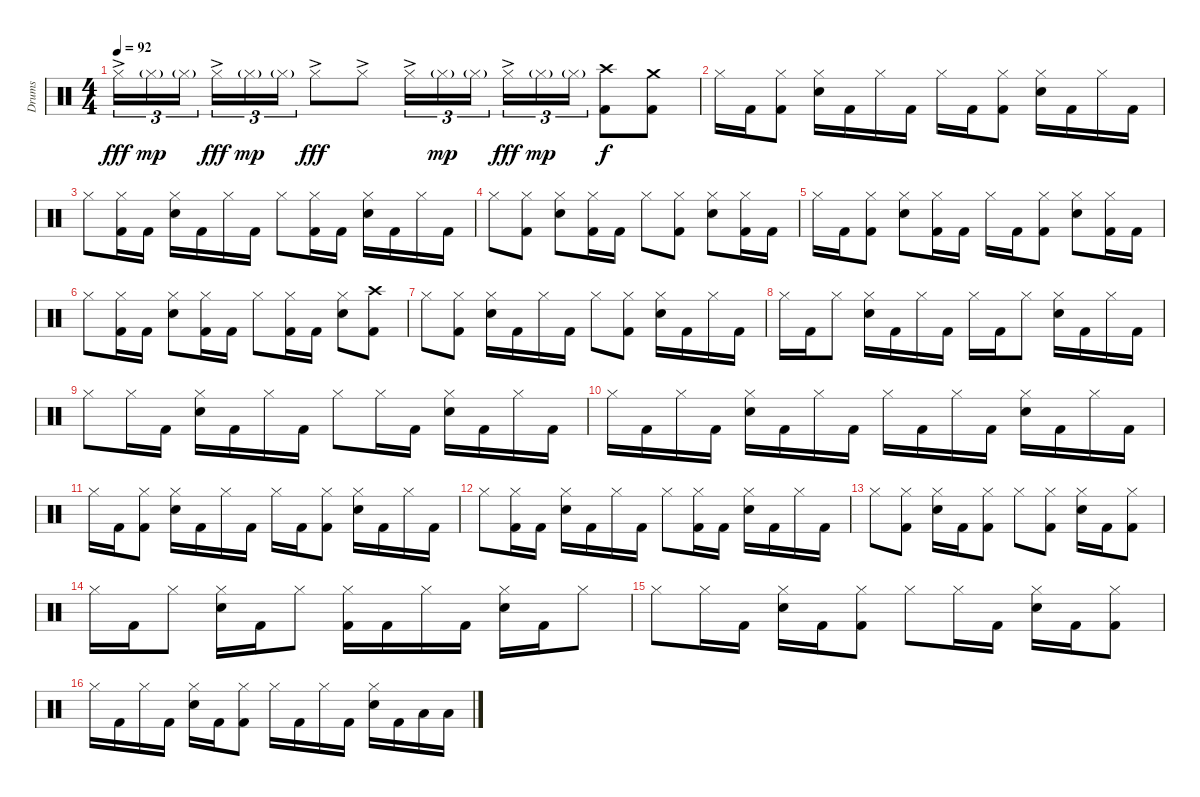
\track ("Drums" "Drums") {instrument percussion}
\staff {score}
\articulation defaults
\ts (4 4)
\tempo 92
\clef neutral
\ks c "Hi-Hat (closed)"{ac}.16{tu (3 2) dy fff} "Hi-Hat (closed)"{g}.16{tu (3 2) dy mp} "Hi-Hat (closed)"{g}.16{tu (3 2)} "Hi-Hat (closed)"{ac}.16{tu (3 2) dy fff} "Hi-Hat (closed)"{g}.16{tu (3 2) dy mp} "Hi-Hat (closed)"{g}.16{tu (3 2)} "Hi-Hat (closed)"{ac}.8{dy fff} "Hi-Hat (closed)"{ac}.8 "Hi-Hat (closed)"{ac}.16{tu (3 2)} "Hi-Hat (closed)"{g}.16{tu (3 2) dy mp} "Hi-Hat (closed)"{g}.16{tu (3 2)} "Hi-Hat (closed)"{ac}.16{tu (3 2) dy fff} "Hi-Hat (closed)"{g}.16{tu (3 2) dy mp} "Hi-Hat (closed)"{g}.16{tu (3 2)}
("Crash high (hit)" "Kick (hit) 2").8{dy f} ("Crash medium (hit)" "Kick (hit) 2").8 |
"Hi-Hat (closed)".16 "Kick (hit) 2".16 ("Hi-Hat (closed)" "Kick (hit) 2").8 ("Snare (hit) 2" "Hi-Hat (closed)").16 "Kick (hit) 2".16 "Hi-Hat (closed)".16 "Kick (hit) 2".16 "Hi-Hat (closed)".16 "Kick (hit) 2".16 ("Hi-Hat (closed)" "Kick (hit) 2").8 ("Hi-Hat (closed)" "Snare (hit) 2").16 "Kick (hit) 2".16 "Hi-Hat (closed)".16 "Kick (hit) 2".16 |
"Hi-Hat (closed)".8 ("Hi-Hat (closed)" "Kick (hit) 2").16 "Kick (hit) 2".16 ("Hi-Hat (closed)" "Snare (hit) 2").16 "Kick (hit) 2".16 "Hi-Hat (closed)".16 "Kick (hit) 2".16 "Hi-Hat (closed)".8 ("Hi-Hat (closed)" "Kick (hit) 2").16 "Kick (hit) 2".16 ("Hi-Hat (closed)" "Snare (hit) 2").16 "Kick (hit) 2".16 "Hi-Hat (closed)".16 "Kick (hit) 2".16 |
"Hi-Hat (closed)".8 ("Hi-Hat (closed)" "Kick (hit) 2").8 ("Snare (hit) 2" "Hi-Hat (closed)").8 ("Hi-Hat (closed)" "Kick (hit) 2").16 "Kick (hit) 2".16 "Hi-Hat (closed)".8 ("Hi-Hat (closed)" "Kick (hit) 2").8 ("Hi-Hat (closed)" "Snare (hit) 2").8 ("Hi-Hat (closed)" "Kick (hit) 2").16 "Kick (hit) 2".16 |
"Hi-Hat (closed)".16 "Kick (hit) 2".16 ("Hi-Hat (closed)" "Kick (hit) 2").8 ("Hi-Hat (closed)" "Snare (hit) 2").8 ("Hi-Hat (closed)" "Kick (hit) 2").16 "Kick (hit) 2".16 "Hi-Hat (closed)".16 "Kick (hit) 2".16 ("Kick (hit) 2" "Hi-Hat (closed)").8 ("Hi-Hat (closed)" "Snare (hit) 2").8 ("Hi-Hat (closed)" "Kick (hit) 2").16 "Kick (hit) 2".16 |
"Hi-Hat (closed)".8 ("Hi-Hat (closed)" "Kick (hit) 2").16 "Kick (hit) 2".16 ("Hi-Hat (closed)" "Snare (hit) 2").8 ("Hi-Hat (closed)" "Kick (hit) 2").16 "Kick (hit) 2".16 "Hi-Hat (closed)".8 ("Hi-Hat (closed)" "Kick (hit) 2").16 "Kick (hit) 2".16 ("Hi-Hat (closed)" "Snare (hit) 2").8 ("Crash high (hit)" "Kick (hit) 2").8 |
"Hi-Hat (closed)".8 ("Hi-Hat (closed)" "Kick (hit) 2").8 ("Hi-Hat (closed)" "Snare (hit) 2").16 "Kick (hit) 2".16 "Hi-Hat (closed)".16 "Kick (hit) 2".16 "Hi-Hat (closed)".8 ("Hi-Hat (closed)" "Kick (hit) 2").8 ("Hi-Hat (closed)" "Snare (hit) 2").16 "Kick (hit) 2".16 "Hi-Hat (closed)".16 "Kick (hit) 2".16 |
"Hi-Hat (closed)".16 "Kick (hit) 2".16 "Hi-Hat (closed)".8 ("Hi-Hat (closed)" "Snare (hit) 2").16 "Kick (hit) 2".16 "Hi-Hat (closed)".16 "Kick (hit) 2".16 "Hi-Hat (closed)".16 "Kick (hit) 2".16 "Hi-Hat (closed)".8 ("Hi-Hat (closed)" "Snare (hit) 2").16 "Kick (hit) 2".16 "Hi-Hat (closed)".16 "Kick (hit) 2".16 |
"Hi-Hat (closed)".8 "Hi-Hat (closed)".16 "Kick (hit) 2".16 ("Hi-Hat (closed)" "Snare (hit) 2").16 "Kick (hit) 2".16 "Hi-Hat (closed)".16 "Kick (hit) 2".16 "Hi-Hat (closed)".8 "Hi-Hat (closed)".16 "Kick (hit) 2".16 ("Hi-Hat (closed)" "Snare (hit) 2").16 "Kick (hit) 2".16 "Hi-Hat (closed)".16 "Kick (hit) 2".16 |
"Hi-Hat (closed)".16 "Kick (hit) 2".16 "Hi-Hat (closed)".16 "Kick (hit) 2".16 ("Hi-Hat (closed)" "Snare (hit) 2").16 "Kick (hit) 2".16 "Hi-Hat (closed)".16 "Kick (hit) 2".16 "Hi-Hat (closed)".16 "Kick (hit) 2".16 "Hi-Hat (closed)".16 "Kick (hit) 2".16 ("Hi-Hat (closed)" "Snare (hit) 2").16 "Kick (hit) 2".16 "Hi-Hat (closed)".16 "Kick (hit) 2".16 |
"Hi-Hat (closed)".16 "Kick (hit) 2".16 ("Hi-Hat (closed)" "Kick (hit) 2").8 ("Hi-Hat (closed)" "Snare (hit) 2").16 "Kick (hit) 2".16 "Hi-Hat (closed)".16 "Kick (hit) 2".16 "Hi-Hat (closed)".16 "Kick (hit) 2".16 ("Hi-Hat (closed)" "Kick (hit) 2").8 ("Hi-Hat (closed)" "Snare (hit) 2").16 "Kick (hit) 2".16 "Hi-Hat (closed)".16 "Kick (hit) 2".16 |
"Hi-Hat (closed)".8 ("Hi-Hat (closed)" "Kick (hit) 2").16 "Kick (hit) 2".16 ("Hi-Hat (closed)" "Snare (hit) 2").16 "Kick (hit) 2".16 "Hi-Hat (closed)".16 "Kick (hit) 2".16 "Hi-Hat (closed)".8 ("Hi-Hat (closed)" "Kick (hit) 2").16 "Kick (hit) 2".16 ("Hi-Hat (closed)" "Snare (hit) 2").16 "Kick (hit) 2".16 "Hi-Hat (closed)".16 "Kick (hit) 2".16 |
"Hi-Hat (closed)".8 ("Hi-Hat (closed)" "Kick (hit) 2").8 ("Hi-Hat (closed)" "Snare (hit) 2").16 "Kick (hit) 2".16 ("Hi-Hat (closed)" "Kick (hit) 2").8 "Hi-Hat (closed)".8 ("Hi-Hat (closed)" "Kick (hit) 2").8 ("Hi-Hat (closed)" "Snare (hit) 2").16 "Kick (hit) 2".16 ("Hi-Hat (closed)" "Kick (hit) 2").8 |
"Hi-Hat (closed)".16 "Kick (hit) 2".16 "Hi-Hat (closed)".8 ("Hi-Hat (closed)" "Snare (hit) 2").16 "Kick (hit) 2".16 "Hi-Hat (closed)".8 ("Hi-Hat (closed)" "Kick (hit) 2").16 "Kick (hit) 2".16 "Hi-Hat (closed)".16 "Kick (hit) 2".16 ("Hi-Hat (closed)" "Snare (hit) 2").16 "Kick (hit) 2".16 "Hi-Hat (closed)".8 |
"Hi-Hat (closed)".8 "Hi-Hat (closed)".16 "Kick (hit) 2".16 ("Hi-Hat (closed)" "Snare (hit) 2").16 "Kick (hit) 2".16 ("Hi-Hat (closed)" "Kick (hit) 2").8 "Hi-Hat (closed)".8 "Hi-Hat (closed)".16 "Kick (hit) 2".16 ("Hi-Hat (closed)" "Snare (hit) 2").16 "Kick (hit) 2".16 ("Hi-Hat (closed)" "Kick (hit) 2").8 |
"Hi-Hat (closed)".16 "Kick (hit) 2".16 "Hi-Hat (closed)".16 "Kick (hit) 2".16 ("Hi-Hat (closed)" "Snare (hit) 2").16 "Kick (hit) 2".16 ("Hi-Hat (closed)" "Kick (hit) 2").8 "Hi-Hat (closed)".16 "Kick (hit) 2".16 "Hi-Hat (closed)".16 "Kick (hit) 2".16 ("Hi-Hat (closed)" "Snare (hit) 2").16 "Kick (hit) 2".16 "Low Tom (hit)".16 "Low Tom (hit)".16
